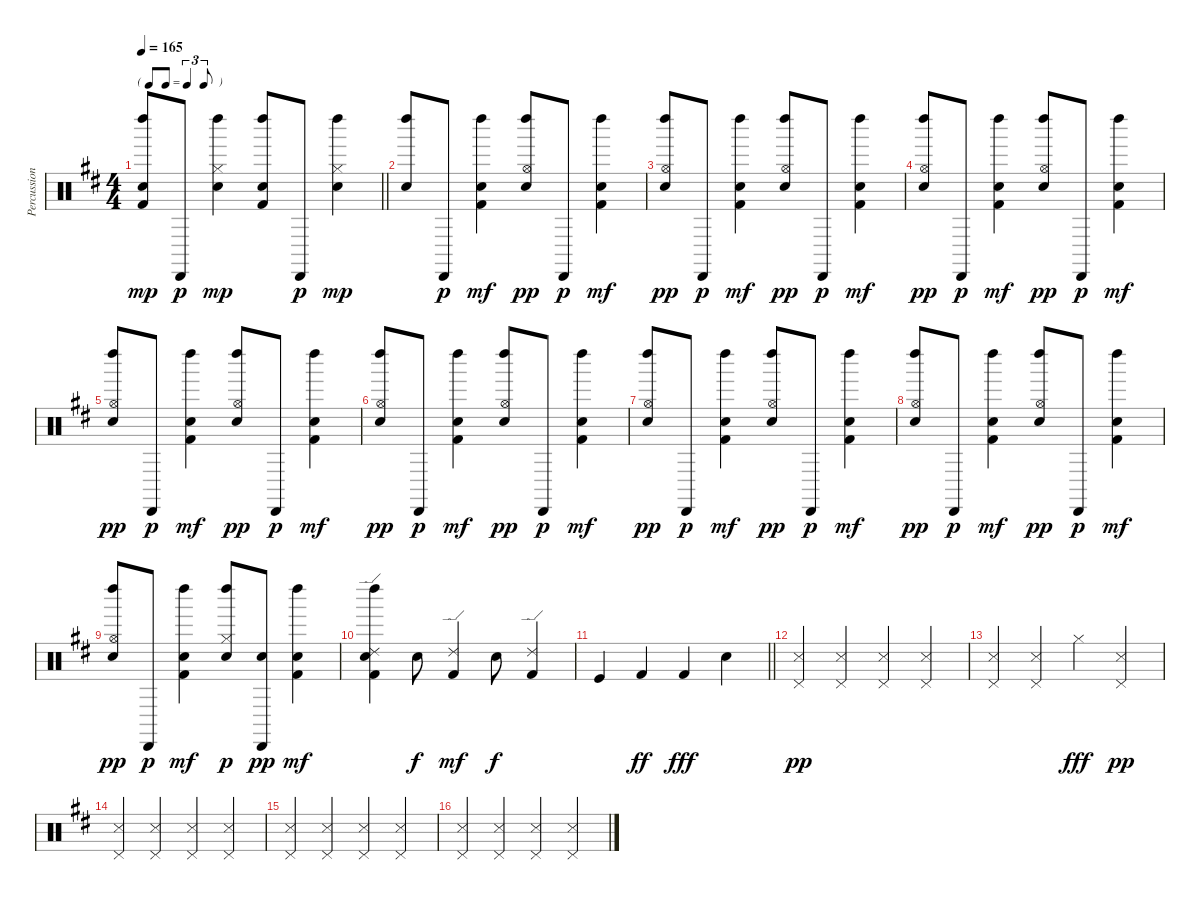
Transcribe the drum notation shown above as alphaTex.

\track ("Percussion" "Percussion") {instrument percussion}
\staff {score}
\articulation defaults
\ts (4 4)
\tf triplet8th
\tempo 165
\clef neutral
\barLineRight lightlight
\ks d
("Left Maraca (hit)" "Snare (hit) 2" "Kick (hit) 2").8{dy mp} "Cabasa (hit)".8{dy p} ("Left Maraca (hit)" "Hi-Hat (closed)" "Snare (hit) 2").4{dy mp} ("Left Maraca (hit)" "Snare (hit) 2" "Kick (hit) 2").8 "Cabasa (hit)".8{dy p} ("Left Maraca (hit)" "Hi-Hat (closed)" "Snare (hit) 2").4{dy mp} |
("Left Maraca (hit)" "Snare (hit) 2").8 "Cabasa (hit)".8{dy p} ("Snare (hit) 2" "Kick (hit) 2" "Left Maraca (hit)").4{dy mf} ("Snare (hit) 2" "Hi-Hat (open)" "Left Maraca (hit)").8{dy pp} "Cabasa (hit)".8{dy p} ("Kick (hit) 2" "Snare (hit) 2" "Left Maraca (hit)").4{dy mf} |
("Snare (hit) 2" "Hi-Hat (open)" "Left Maraca (hit)").8{dy pp} "Cabasa (hit)".8{dy p} ("Kick (hit) 2" "Snare (hit) 2" "Left Maraca (hit)").4{dy mf} ("Snare (hit) 2" "Hi-Hat (open)" "Left Maraca (hit)").8{dy pp} "Cabasa (hit)".8{dy p} ("Kick (hit) 2" "Snare (hit) 2" "Left Maraca (hit)").4{dy mf} |
("Snare (hit) 2" "Hi-Hat (open)" "Left Maraca (hit)").8{dy pp} "Cabasa (hit)".8{dy p} ("Kick (hit) 2" "Snare (hit) 2" "Left Maraca (hit)").4{dy mf} ("Snare (hit) 2" "Hi-Hat (open)" "Left Maraca (hit)").8{dy pp} "Cabasa (hit)".8{dy p} ("Kick (hit) 2" "Snare (hit) 2" "Left Maraca (hit)").4{dy mf} |
("Snare (hit) 2" "Hi-Hat (open)" "Left Maraca (hit)").8{dy pp} "Cabasa (hit)".8{dy p} ("Kick (hit) 2" "Snare (hit) 2" "Left Maraca (hit)").4{dy mf} ("Snare (hit) 2" "Hi-Hat (open)" "Left Maraca (hit)").8{dy pp} "Cabasa (hit)".8{dy p} ("Kick (hit) 2" "Snare (hit) 2" "Left Maraca (hit)").4{dy mf} |
("Snare (hit) 2" "Hi-Hat (open)" "Left Maraca (hit)").8{dy pp} "Cabasa (hit)".8{dy p} ("Kick (hit) 2" "Snare (hit) 2" "Left Maraca (hit)").4{dy mf} ("Snare (hit) 2" "Hi-Hat (open)" "Left Maraca (hit)").8{dy pp} "Cabasa (hit)".8{dy p} ("Kick (hit) 2" "Snare (hit) 2" "Left Maraca (hit)").4{dy mf} |
("Snare (hit) 2" "Hi-Hat (open)" "Left Maraca (hit)").8{dy pp} "Cabasa (hit)".8{dy p} ("Kick (hit) 2" "Snare (hit) 2" "Left Maraca (hit)").4{dy mf} ("Snare (hit) 2" "Hi-Hat (open)" "Left Maraca (hit)").8{dy pp} "Cabasa (hit)".8{dy p} ("Kick (hit) 2" "Snare (hit) 2" "Left Maraca (hit)").4{dy mf} |
("Snare (hit) 2" "Hi-Hat (open)" "Left Maraca (hit)").8{dy pp} "Cabasa (hit)".8{dy p} ("Kick (hit) 2" "Snare (hit) 2" "Left Maraca (hit)").4{dy mf} ("Snare (hit) 2" "Hi-Hat (open)" "Left Maraca (hit)").8{dy pp} "Cabasa (hit)".8{dy p} ("Kick (hit) 2" "Snare (hit) 2" "Left Maraca (hit)").4{dy mf} |
("Snare (hit) 2" "Hi-Hat (open)" "Left Maraca (hit)").8{dy pp} "Cabasa (hit)".8{dy p} ("Kick (hit) 2" "Snare (hit) 2" "Left Maraca (hit)").4{dy mf} ("Hi-Hat (closed)" "Snare (hit) 2" "Left Maraca (hit)").8{dy p} ("Snare (hit) 2" "Cabasa (hit)").8{dy pp} ("Snare (hit) 2" "Kick (hit) 2" "Left Maraca (hit)").4{dy mf} |
("Snare (hit) 2" "Left Maraca (hit)" "Kick (hit) 2" "Ride (edge) 2").4 "Snare (hit) 2".8{dy f} ("Ride (edge) 2" "Kick (hit) 2").4{dy mf} "Snare (hit) 2".8{dy f} ("Kick (hit) 2" "Ride (edge) 2").4 |
\barLineRight lightlight "Kick (hit)".4 "Kick (hit) 2".4{dy ff} "Kick (hit) 2".4{dy fff} "Snare (hit) 2".4
|
("Pedal Hi-Hat (hit)" "Snare (side stick) 3").4{dy pp} ("Pedal Hi-Hat (hit)" "Snare (side stick) 3").4 ("Pedal Hi-Hat (hit)" "Snare (side stick) 3").4 ("Pedal Hi-Hat (hit)" "Snare (side stick) 3").4 |
("Pedal Hi-Hat (hit)" "Snare (side stick) 3").4 ("Pedal Hi-Hat (hit)" "Snare (side stick) 3").4 "Hi-Hat (closed)".4{dy fff} ("Pedal Hi-Hat (hit)" "Snare (side stick) 3").4{dy pp} |
("Pedal Hi-Hat (hit)" "Snare (side stick) 3").4 ("Pedal Hi-Hat (hit)" "Snare (side stick) 3").4 ("Pedal Hi-Hat (hit)" "Snare (side stick) 3").4 ("Pedal Hi-Hat (hit)" "Snare (side stick) 3").4 |
("Pedal Hi-Hat (hit)" "Snare (side stick) 3").4 ("Pedal Hi-Hat (hit)" "Snare (side stick) 3").4 ("Pedal Hi-Hat (hit)" "Snare (side stick) 3").4 ("Pedal Hi-Hat (hit)" "Snare (side stick) 3").4 |
("Pedal Hi-Hat (hit)" "Snare (side stick) 3").4 ("Pedal Hi-Hat (hit)" "Snare (side stick) 3").4 ("Pedal Hi-Hat (hit)" "Snare (side stick) 3").4 ("Pedal Hi-Hat (hit)" "Snare (side stick) 3").4
